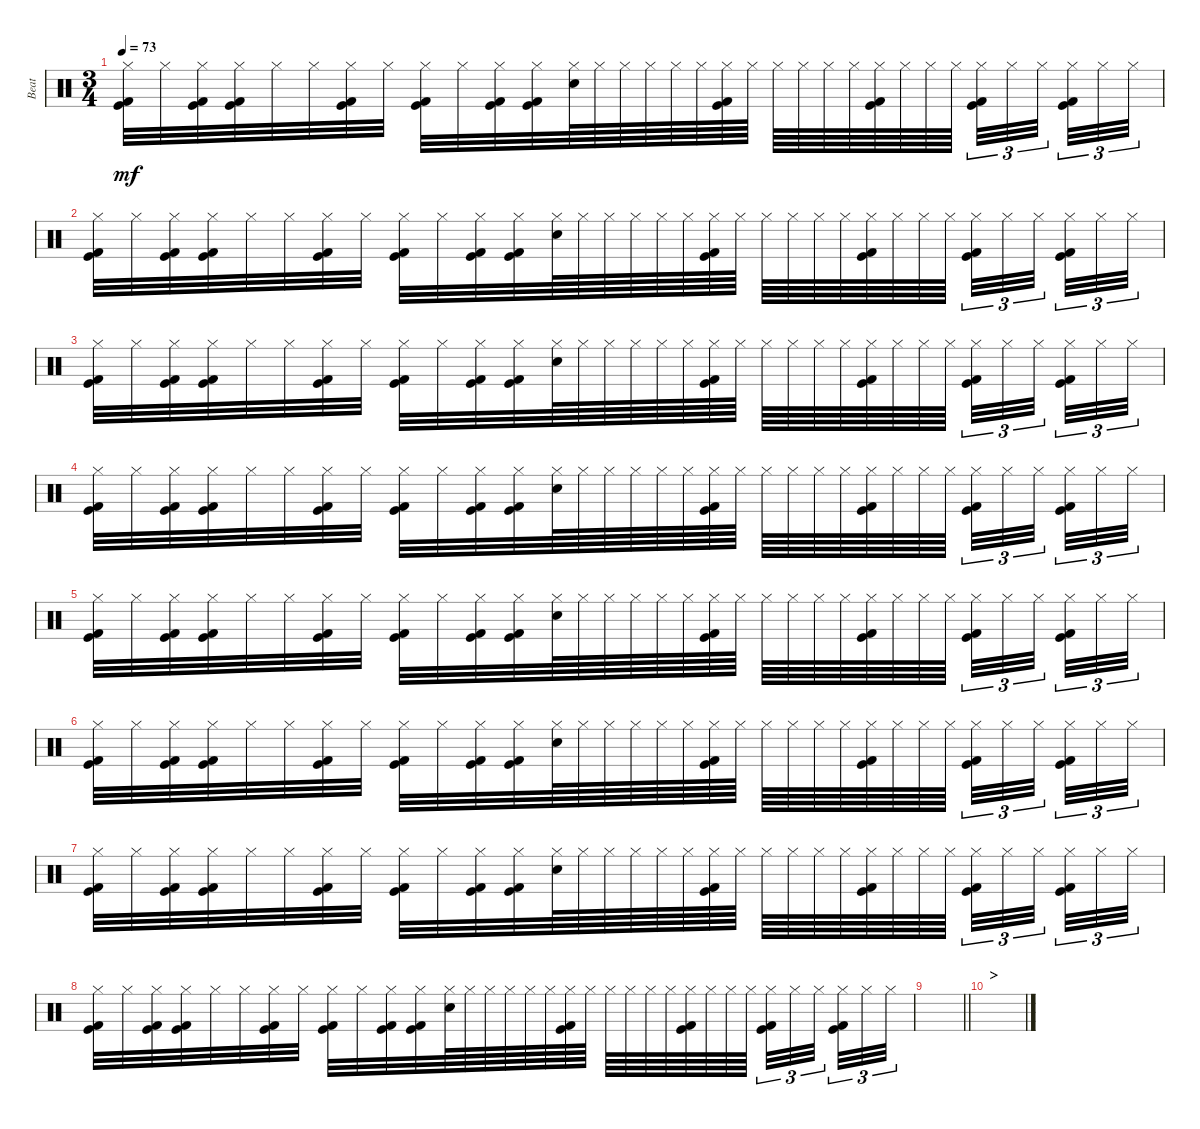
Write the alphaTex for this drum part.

\track ("Beat" "Beat") {instrument percussion}
\staff {score}
\articulation defaults
\ts (3 4)
\tempo 73
\clef neutral
\ks c
("Hi-Hat (closed)" "Kick (hit)" "Kick (hit) 2").32{dy mf} "Hi-Hat (closed)".32 ("Hi-Hat (closed)" "Kick (hit)" "Kick (hit) 2").32 ("Hi-Hat (closed)" "Kick (hit)" "Kick (hit) 2").32 "Hi-Hat (closed)".32 "Hi-Hat (closed)".32 ("Hi-Hat (closed)" "Kick (hit)" "Kick (hit) 2").32 "Hi-Hat (closed)".32 ("Hi-Hat (closed)" "Kick (hit)" "Kick (hit) 2").32 "Hi-Hat (closed)".32 ("Hi-Hat (closed)" "Kick (hit)" "Kick (hit) 2").32 ("Hi-Hat (closed)" "Kick (hit)" "Kick (hit) 2").32 ("Hi-Hat (closed)" "Snare (hit) 2").64 "Hi-Hat (closed)".64 "Hi-Hat (closed)".64 "Hi-Hat (closed)".64 "Hi-Hat (closed)".64 "Hi-Hat (closed)".64 ("Hi-Hat (closed)" "Kick (hit)" "Kick (hit) 2").64 "Hi-Hat (closed)".64 "Hi-Hat (closed)".64 "Hi-Hat (closed)".64 "Hi-Hat (closed)".64 "Hi-Hat (closed)".64 ("Hi-Hat (closed)" "Kick (hit)" "Kick (hit) 2").64 "Hi-Hat (closed)".64 "Hi-Hat (closed)".64 "Hi-Hat (closed)".64{beam splitsecondary} ("Hi-Hat (closed)" "Kick (hit)" "Kick (hit) 2").32{tu (3 2)} "Hi-Hat (closed)".32{tu (3 2)} "Hi-Hat (closed)".32{tu (3 2) beam splitsecondary} ("Hi-Hat (closed)" "Kick (hit)" "Kick (hit) 2").32{tu (3 2)} "Hi-Hat (closed)".32{tu (3 2)} "Hi-Hat (closed)".32{tu (3 2)} |
("Hi-Hat (closed)" "Kick (hit)" "Kick (hit) 2").32 "Hi-Hat (closed)".32 ("Hi-Hat (closed)" "Kick (hit)" "Kick (hit) 2").32 ("Hi-Hat (closed)" "Kick (hit)" "Kick (hit) 2").32 "Hi-Hat (closed)".32 "Hi-Hat (closed)".32 ("Hi-Hat (closed)" "Kick (hit)" "Kick (hit) 2").32 "Hi-Hat (closed)".32 ("Hi-Hat (closed)" "Kick (hit)" "Kick (hit) 2").32 "Hi-Hat (closed)".32 ("Hi-Hat (closed)" "Kick (hit)" "Kick (hit) 2").32 ("Hi-Hat (closed)" "Kick (hit)" "Kick (hit) 2").32 ("Hi-Hat (closed)" "Snare (hit) 2").64 "Hi-Hat (closed)".64 "Hi-Hat (closed)".64 "Hi-Hat (closed)".64 "Hi-Hat (closed)".64 "Hi-Hat (closed)".64 ("Hi-Hat (closed)" "Kick (hit)" "Kick (hit) 2").64 "Hi-Hat (closed)".64 "Hi-Hat (closed)".64 "Hi-Hat (closed)".64 "Hi-Hat (closed)".64 "Hi-Hat (closed)".64 ("Hi-Hat (closed)" "Kick (hit)" "Kick (hit) 2").64 "Hi-Hat (closed)".64 "Hi-Hat (closed)".64 "Hi-Hat (closed)".64{beam splitsecondary} ("Hi-Hat (closed)" "Kick (hit)" "Kick (hit) 2").32{tu (3 2)} "Hi-Hat (closed)".32{tu (3 2)} "Hi-Hat (closed)".32{tu (3 2) beam splitsecondary} ("Hi-Hat (closed)" "Kick (hit)" "Kick (hit) 2").32{tu (3 2)} "Hi-Hat (closed)".32{tu (3 2)} "Hi-Hat (closed)".32{tu (3 2)} |
("Hi-Hat (closed)" "Kick (hit)" "Kick (hit) 2").32 "Hi-Hat (closed)".32 ("Hi-Hat (closed)" "Kick (hit)" "Kick (hit) 2").32 ("Hi-Hat (closed)" "Kick (hit)" "Kick (hit) 2").32 "Hi-Hat (closed)".32 "Hi-Hat (closed)".32 ("Hi-Hat (closed)" "Kick (hit)" "Kick (hit) 2").32 "Hi-Hat (closed)".32 ("Hi-Hat (closed)" "Kick (hit)" "Kick (hit) 2").32 "Hi-Hat (closed)".32 ("Hi-Hat (closed)" "Kick (hit)" "Kick (hit) 2").32 ("Hi-Hat (closed)" "Kick (hit)" "Kick (hit) 2").32 ("Hi-Hat (closed)" "Snare (hit) 2").64 "Hi-Hat (closed)".64 "Hi-Hat (closed)".64 "Hi-Hat (closed)".64 "Hi-Hat (closed)".64 "Hi-Hat (closed)".64 ("Hi-Hat (closed)" "Kick (hit)" "Kick (hit) 2").64 "Hi-Hat (closed)".64 "Hi-Hat (closed)".64 "Hi-Hat (closed)".64 "Hi-Hat (closed)".64 "Hi-Hat (closed)".64 ("Hi-Hat (closed)" "Kick (hit)" "Kick (hit) 2").64 "Hi-Hat (closed)".64 "Hi-Hat (closed)".64 "Hi-Hat (closed)".64{beam splitsecondary} ("Hi-Hat (closed)" "Kick (hit)" "Kick (hit) 2").32{tu (3 2)} "Hi-Hat (closed)".32{tu (3 2)} "Hi-Hat (closed)".32{tu (3 2) beam splitsecondary} ("Hi-Hat (closed)" "Kick (hit)" "Kick (hit) 2").32{tu (3 2)} "Hi-Hat (closed)".32{tu (3 2)} "Hi-Hat (closed)".32{tu (3 2)} |
("Hi-Hat (closed)" "Kick (hit)" "Kick (hit) 2").32 "Hi-Hat (closed)".32 ("Hi-Hat (closed)" "Kick (hit)" "Kick (hit) 2").32 ("Hi-Hat (closed)" "Kick (hit)" "Kick (hit) 2").32 "Hi-Hat (closed)".32 "Hi-Hat (closed)".32 ("Hi-Hat (closed)" "Kick (hit)" "Kick (hit) 2").32 "Hi-Hat (closed)".32 ("Hi-Hat (closed)" "Kick (hit)" "Kick (hit) 2").32 "Hi-Hat (closed)".32 ("Hi-Hat (closed)" "Kick (hit)" "Kick (hit) 2").32 ("Hi-Hat (closed)" "Kick (hit)" "Kick (hit) 2").32 ("Hi-Hat (closed)" "Snare (hit) 2").64 "Hi-Hat (closed)".64 "Hi-Hat (closed)".64 "Hi-Hat (closed)".64 "Hi-Hat (closed)".64 "Hi-Hat (closed)".64 ("Hi-Hat (closed)" "Kick (hit)" "Kick (hit) 2").64 "Hi-Hat (closed)".64 "Hi-Hat (closed)".64 "Hi-Hat (closed)".64 "Hi-Hat (closed)".64 "Hi-Hat (closed)".64 ("Hi-Hat (closed)" "Kick (hit)" "Kick (hit) 2").64 "Hi-Hat (closed)".64 "Hi-Hat (closed)".64 "Hi-Hat (closed)".64{beam splitsecondary} ("Hi-Hat (closed)" "Kick (hit)" "Kick (hit) 2").32{tu (3 2)} "Hi-Hat (closed)".32{tu (3 2)} "Hi-Hat (closed)".32{tu (3 2) beam splitsecondary} ("Hi-Hat (closed)" "Kick (hit)" "Kick (hit) 2").32{tu (3 2)} "Hi-Hat (closed)".32{tu (3 2)} "Hi-Hat (closed)".32{tu (3 2)} |
("Hi-Hat (closed)" "Kick (hit)" "Kick (hit) 2").32 "Hi-Hat (closed)".32 ("Hi-Hat (closed)" "Kick (hit)" "Kick (hit) 2").32 ("Hi-Hat (closed)" "Kick (hit)" "Kick (hit) 2").32 "Hi-Hat (closed)".32 "Hi-Hat (closed)".32 ("Hi-Hat (closed)" "Kick (hit)" "Kick (hit) 2").32 "Hi-Hat (closed)".32 ("Hi-Hat (closed)" "Kick (hit)" "Kick (hit) 2").32 "Hi-Hat (closed)".32 ("Hi-Hat (closed)" "Kick (hit)" "Kick (hit) 2").32 ("Hi-Hat (closed)" "Kick (hit)" "Kick (hit) 2").32 ("Hi-Hat (closed)" "Snare (hit) 2").64 "Hi-Hat (closed)".64 "Hi-Hat (closed)".64 "Hi-Hat (closed)".64 "Hi-Hat (closed)".64 "Hi-Hat (closed)".64 ("Hi-Hat (closed)" "Kick (hit)" "Kick (hit) 2").64 "Hi-Hat (closed)".64 "Hi-Hat (closed)".64 "Hi-Hat (closed)".64 "Hi-Hat (closed)".64 "Hi-Hat (closed)".64 ("Hi-Hat (closed)" "Kick (hit)" "Kick (hit) 2").64 "Hi-Hat (closed)".64 "Hi-Hat (closed)".64 "Hi-Hat (closed)".64{beam splitsecondary} ("Hi-Hat (closed)" "Kick (hit)" "Kick (hit) 2").32{tu (3 2)} "Hi-Hat (closed)".32{tu (3 2)} "Hi-Hat (closed)".32{tu (3 2) beam splitsecondary} ("Hi-Hat (closed)" "Kick (hit)" "Kick (hit) 2").32{tu (3 2)} "Hi-Hat (closed)".32{tu (3 2)} "Hi-Hat (closed)".32{tu (3 2)} |
("Hi-Hat (closed)" "Kick (hit)" "Kick (hit) 2").32 "Hi-Hat (closed)".32 ("Hi-Hat (closed)" "Kick (hit)" "Kick (hit) 2").32 ("Hi-Hat (closed)" "Kick (hit)" "Kick (hit) 2").32 "Hi-Hat (closed)".32 "Hi-Hat (closed)".32 ("Hi-Hat (closed)" "Kick (hit)" "Kick (hit) 2").32 "Hi-Hat (closed)".32 ("Hi-Hat (closed)" "Kick (hit)" "Kick (hit) 2").32 "Hi-Hat (closed)".32 ("Hi-Hat (closed)" "Kick (hit)" "Kick (hit) 2").32 ("Hi-Hat (closed)" "Kick (hit)" "Kick (hit) 2").32 ("Hi-Hat (closed)" "Snare (hit) 2").64 "Hi-Hat (closed)".64 "Hi-Hat (closed)".64 "Hi-Hat (closed)".64 "Hi-Hat (closed)".64 "Hi-Hat (closed)".64 ("Hi-Hat (closed)" "Kick (hit)" "Kick (hit) 2").64 "Hi-Hat (closed)".64 "Hi-Hat (closed)".64 "Hi-Hat (closed)".64 "Hi-Hat (closed)".64 "Hi-Hat (closed)".64 ("Hi-Hat (closed)" "Kick (hit)" "Kick (hit) 2").64 "Hi-Hat (closed)".64 "Hi-Hat (closed)".64 "Hi-Hat (closed)".64{beam splitsecondary} ("Hi-Hat (closed)" "Kick (hit)" "Kick (hit) 2").32{tu (3 2)} "Hi-Hat (closed)".32{tu (3 2)} "Hi-Hat (closed)".32{tu (3 2) beam splitsecondary} ("Hi-Hat (closed)" "Kick (hit)" "Kick (hit) 2").32{tu (3 2)} "Hi-Hat (closed)".32{tu (3 2)} "Hi-Hat (closed)".32{tu (3 2)} |
("Hi-Hat (closed)" "Kick (hit)" "Kick (hit) 2").32 "Hi-Hat (closed)".32 ("Hi-Hat (closed)" "Kick (hit)" "Kick (hit) 2").32 ("Hi-Hat (closed)" "Kick (hit)" "Kick (hit) 2").32 "Hi-Hat (closed)".32 "Hi-Hat (closed)".32 ("Hi-Hat (closed)" "Kick (hit)" "Kick (hit) 2").32 "Hi-Hat (closed)".32 ("Hi-Hat (closed)" "Kick (hit)" "Kick (hit) 2").32 "Hi-Hat (closed)".32 ("Hi-Hat (closed)" "Kick (hit)" "Kick (hit) 2").32 ("Hi-Hat (closed)" "Kick (hit)" "Kick (hit) 2").32 ("Hi-Hat (closed)" "Snare (hit) 2").64 "Hi-Hat (closed)".64 "Hi-Hat (closed)".64 "Hi-Hat (closed)".64 "Hi-Hat (closed)".64 "Hi-Hat (closed)".64 ("Hi-Hat (closed)" "Kick (hit)" "Kick (hit) 2").64 "Hi-Hat (closed)".64 "Hi-Hat (closed)".64 "Hi-Hat (closed)".64 "Hi-Hat (closed)".64 "Hi-Hat (closed)".64 ("Hi-Hat (closed)" "Kick (hit)" "Kick (hit) 2").64 "Hi-Hat (closed)".64 "Hi-Hat (closed)".64 "Hi-Hat (closed)".64{beam splitsecondary} ("Hi-Hat (closed)" "Kick (hit)" "Kick (hit) 2").32{tu (3 2)} "Hi-Hat (closed)".32{tu (3 2)} "Hi-Hat (closed)".32{tu (3 2) beam splitsecondary} ("Hi-Hat (closed)" "Kick (hit)" "Kick (hit) 2").32{tu (3 2)} "Hi-Hat (closed)".32{tu (3 2)} "Hi-Hat (closed)".32{tu (3 2)} |
("Hi-Hat (closed)" "Kick (hit)" "Kick (hit) 2").32 "Hi-Hat (closed)".32 ("Hi-Hat (closed)" "Kick (hit)" "Kick (hit) 2").32 ("Hi-Hat (closed)" "Kick (hit)" "Kick (hit) 2").32 "Hi-Hat (closed)".32 "Hi-Hat (closed)".32 ("Hi-Hat (closed)" "Kick (hit)" "Kick (hit) 2").32 "Hi-Hat (closed)".32 ("Hi-Hat (closed)" "Kick (hit)" "Kick (hit) 2").32 "Hi-Hat (closed)".32 ("Hi-Hat (closed)" "Kick (hit)" "Kick (hit) 2").32 ("Hi-Hat (closed)" "Kick (hit)" "Kick (hit) 2").32 ("Hi-Hat (closed)" "Snare (hit) 2").64 "Hi-Hat (closed)".64 "Hi-Hat (closed)".64 "Hi-Hat (closed)".64 "Hi-Hat (closed)".64 "Hi-Hat (closed)".64 ("Hi-Hat (closed)" "Kick (hit)" "Kick (hit) 2").64 "Hi-Hat (closed)".64 "Hi-Hat (closed)".64 "Hi-Hat (closed)".64 "Hi-Hat (closed)".64 "Hi-Hat (closed)".64 ("Hi-Hat (closed)" "Kick (hit)" "Kick (hit) 2").64 "Hi-Hat (closed)".64 "Hi-Hat (closed)".64 "Hi-Hat (closed)".64{beam splitsecondary} ("Hi-Hat (closed)" "Kick (hit)" "Kick (hit) 2").32{tu (3 2)} "Hi-Hat (closed)".32{tu (3 2)} "Hi-Hat (closed)".32{tu (3 2) beam splitsecondary} ("Hi-Hat (closed)" "Kick (hit)" "Kick (hit) 2").32{tu (3 2)} "Hi-Hat (closed)".32{tu (3 2)} "Hi-Hat (closed)".32{tu (3 2)} |
\barLineRight lightlight
|
\section ("" ">")
